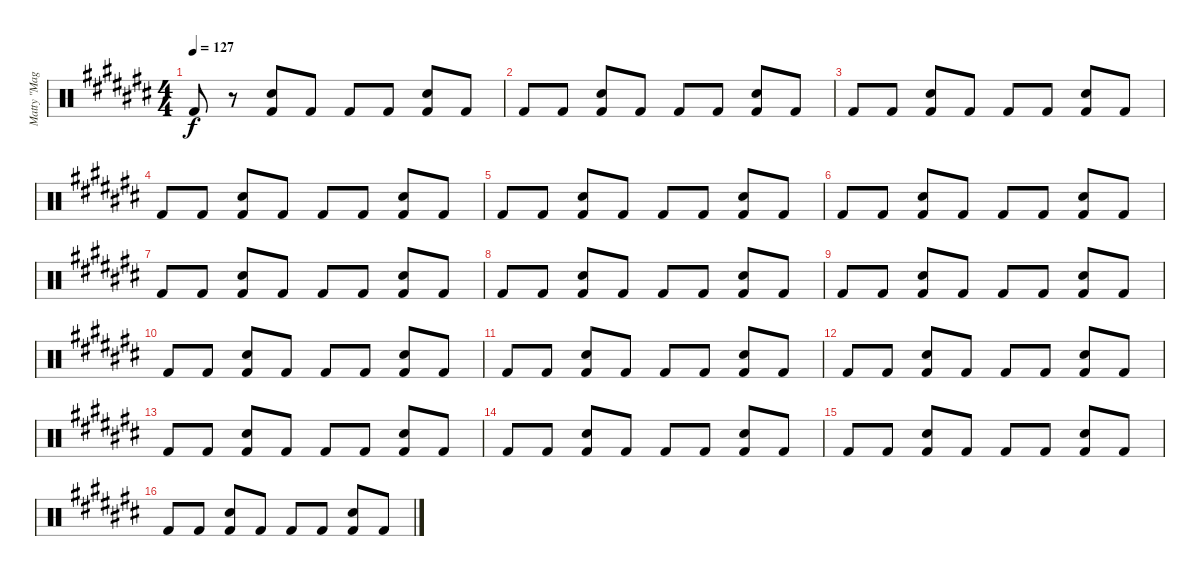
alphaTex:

\track ("Matty \"Magic\" Datsun (Drums)" "Matty \"Mag") {instrument percussion}
\staff {score}
\articulation defaults
\ts (4 4)
\tempo 127
\clef neutral
\ks a#minor "Kick (hit) 2".8{dy f}
r.8 ("Kick (hit) 2" "Electric Snare (hit)").8 "Kick (hit) 2".8 "Kick (hit) 2".8 "Kick (hit) 2".8 ("Kick (hit) 2" "Electric Snare (hit)").8 "Kick (hit) 2".8 |
"Kick (hit) 2".8 "Kick (hit) 2".8 ("Kick (hit) 2" "Electric Snare (hit)").8 "Kick (hit) 2".8 "Kick (hit) 2".8 "Kick (hit) 2".8 ("Kick (hit) 2" "Electric Snare (hit)").8 "Kick (hit) 2".8 |
"Kick (hit) 2".8 "Kick (hit) 2".8 ("Kick (hit) 2" "Electric Snare (hit)").8 "Kick (hit) 2".8 "Kick (hit) 2".8 "Kick (hit) 2".8 ("Kick (hit) 2" "Electric Snare (hit)").8 "Kick (hit) 2".8 |
"Kick (hit) 2".8 "Kick (hit) 2".8 ("Kick (hit) 2" "Electric Snare (hit)").8 "Kick (hit) 2".8 "Kick (hit) 2".8 "Kick (hit) 2".8 ("Kick (hit) 2" "Electric Snare (hit)").8 "Kick (hit) 2".8 |
"Kick (hit) 2".8 "Kick (hit) 2".8 ("Kick (hit) 2" "Electric Snare (hit)").8 "Kick (hit) 2".8 "Kick (hit) 2".8 "Kick (hit) 2".8 ("Kick (hit) 2" "Electric Snare (hit)").8 "Kick (hit) 2".8 |
"Kick (hit) 2".8 "Kick (hit) 2".8 ("Kick (hit) 2" "Electric Snare (hit)").8 "Kick (hit) 2".8 "Kick (hit) 2".8 "Kick (hit) 2".8 ("Kick (hit) 2" "Electric Snare (hit)").8 "Kick (hit) 2".8 |
"Kick (hit) 2".8 "Kick (hit) 2".8 ("Kick (hit) 2" "Electric Snare (hit)").8 "Kick (hit) 2".8 "Kick (hit) 2".8 "Kick (hit) 2".8 ("Kick (hit) 2" "Electric Snare (hit)").8 "Kick (hit) 2".8 |
"Kick (hit) 2".8 "Kick (hit) 2".8 ("Kick (hit) 2" "Electric Snare (hit)").8 "Kick (hit) 2".8 "Kick (hit) 2".8 "Kick (hit) 2".8 ("Kick (hit) 2" "Electric Snare (hit)").8 "Kick (hit) 2".8 |
"Kick (hit) 2".8 "Kick (hit) 2".8 ("Kick (hit) 2" "Electric Snare (hit)").8 "Kick (hit) 2".8 "Kick (hit) 2".8 "Kick (hit) 2".8 ("Kick (hit) 2" "Electric Snare (hit)").8 "Kick (hit) 2".8 |
"Kick (hit) 2".8 "Kick (hit) 2".8 ("Kick (hit) 2" "Electric Snare (hit)").8 "Kick (hit) 2".8 "Kick (hit) 2".8 "Kick (hit) 2".8 ("Kick (hit) 2" "Electric Snare (hit)").8 "Kick (hit) 2".8 |
"Kick (hit) 2".8 "Kick (hit) 2".8 ("Kick (hit) 2" "Electric Snare (hit)").8 "Kick (hit) 2".8 "Kick (hit) 2".8 "Kick (hit) 2".8 ("Kick (hit) 2" "Electric Snare (hit)").8 "Kick (hit) 2".8 |
"Kick (hit) 2".8 "Kick (hit) 2".8 ("Kick (hit) 2" "Electric Snare (hit)").8 "Kick (hit) 2".8 "Kick (hit) 2".8 "Kick (hit) 2".8 ("Kick (hit) 2" "Electric Snare (hit)").8 "Kick (hit) 2".8 |
"Kick (hit) 2".8 "Kick (hit) 2".8 ("Kick (hit) 2" "Electric Snare (hit)").8 "Kick (hit) 2".8 "Kick (hit) 2".8 "Kick (hit) 2".8 ("Kick (hit) 2" "Electric Snare (hit)").8 "Kick (hit) 2".8 |
"Kick (hit) 2".8 "Kick (hit) 2".8 ("Kick (hit) 2" "Electric Snare (hit)").8 "Kick (hit) 2".8 "Kick (hit) 2".8 "Kick (hit) 2".8 ("Kick (hit) 2" "Electric Snare (hit)").8 "Kick (hit) 2".8 |
"Kick (hit) 2".8 "Kick (hit) 2".8 ("Kick (hit) 2" "Electric Snare (hit)").8 "Kick (hit) 2".8 "Kick (hit) 2".8 "Kick (hit) 2".8 ("Kick (hit) 2" "Electric Snare (hit)").8 "Kick (hit) 2".8 |
"Kick (hit) 2".8 "Kick (hit) 2".8 ("Kick (hit) 2" "Electric Snare (hit)").8 "Kick (hit) 2".8 "Kick (hit) 2".8 "Kick (hit) 2".8 ("Kick (hit) 2" "Electric Snare (hit)").8 "Kick (hit) 2".8
